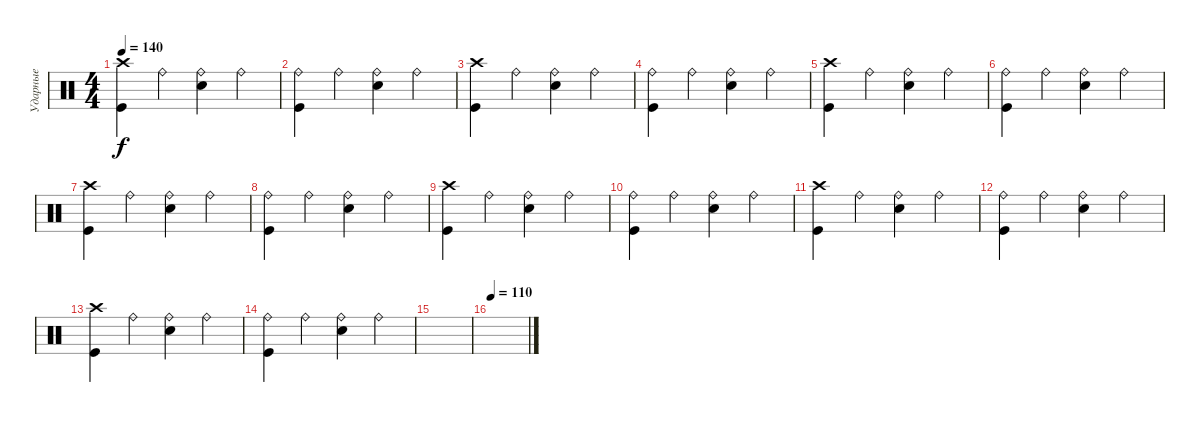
\track ("Ударные" "Ударные") {instrument percussion}
\staff {score}
\articulation defaults
\ts (4 4)
\tempo 140
\clef neutral
\ks c
("Crash high (hit)" "Kick (hit)").4{dy f} "Ride (bell)".4 ("Ride (bell)" "Electric Snare (hit)").4 "Ride (bell)".4 |
("Ride (bell)" "Kick (hit)").4 "Ride (bell)".4 ("Ride (bell)" "Electric Snare (hit)").4 "Ride (bell)".4 |
("Crash high (hit)" "Kick (hit)").4 "Ride (bell)".4 ("Ride (bell)" "Electric Snare (hit)").4 "Ride (bell)".4 |
("Ride (bell)" "Kick (hit)").4 "Ride (bell)".4 ("Ride (bell)" "Electric Snare (hit)").4 "Ride (bell)".4 |
("Crash high (hit)" "Kick (hit)").4 "Ride (bell)".4 ("Ride (bell)" "Electric Snare (hit)").4 "Ride (bell)".4 |
("Ride (bell)" "Kick (hit)").4 "Ride (bell)".4 ("Ride (bell)" "Electric Snare (hit)").4 "Ride (bell)".4 |
("Crash high (hit)" "Kick (hit)").4 "Ride (bell)".4 ("Ride (bell)" "Electric Snare (hit)").4 "Ride (bell)".4 |
("Ride (bell)" "Kick (hit)").4 "Ride (bell)".4 ("Ride (bell)" "Electric Snare (hit)").4 "Ride (bell)".4 |
("Crash high (hit)" "Kick (hit)").4 "Ride (bell)".4 ("Ride (bell)" "Electric Snare (hit)").4 "Ride (bell)".4 |
("Ride (bell)" "Kick (hit)").4 "Ride (bell)".4 ("Ride (bell)" "Electric Snare (hit)").4 "Ride (bell)".4 |
("Crash high (hit)" "Kick (hit)").4 "Ride (bell)".4 ("Ride (bell)" "Electric Snare (hit)").4 "Ride (bell)".4 |
("Ride (bell)" "Kick (hit)").4 "Ride (bell)".4 ("Ride (bell)" "Electric Snare (hit)").4 "Ride (bell)".4 |
("Crash high (hit)" "Kick (hit)").4 "Ride (bell)".4 ("Ride (bell)" "Electric Snare (hit)").4 "Ride (bell)".4 |
("Ride (bell)" "Kick (hit)").4 "Ride (bell)".4 ("Ride (bell)" "Electric Snare (hit)").4 "Ride (bell)".4 |
|
\tempo 110
